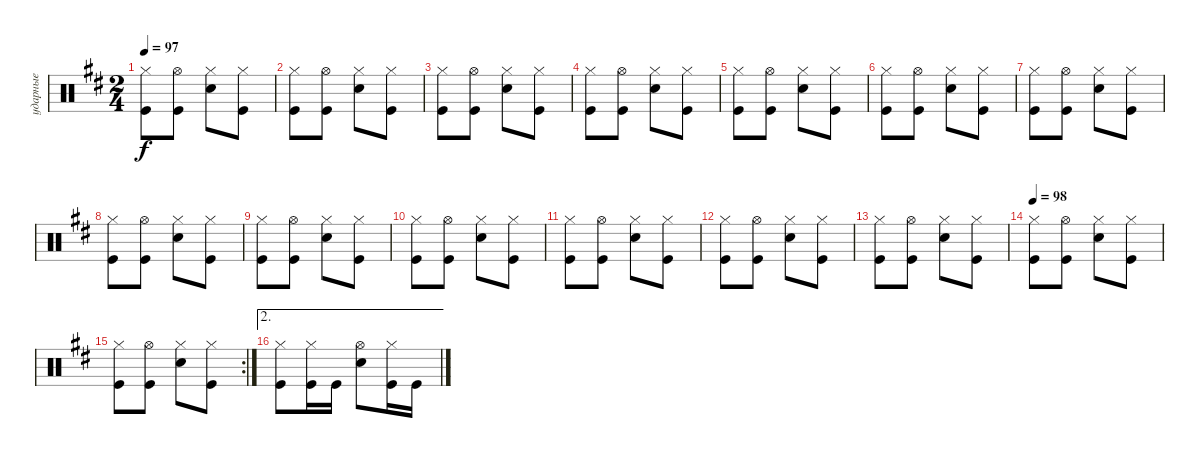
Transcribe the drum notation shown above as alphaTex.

\track ("ударные" "ударные") {instrument percussion}
\staff {score}
\articulation defaults
\ts (2 4)
\tempo 97
\clef neutral
\ks bminor
("Kick (hit)" "Hi-Hat (closed)").8{dy f} ("Kick (hit)" "Hi-Hat (open)").8 ("Snare (hit) 2" "Hi-Hat (closed)").8 ("Hi-Hat (closed)" "Kick (hit)").8 |
("Kick (hit)" "Hi-Hat (closed)").8 ("Kick (hit)" "Hi-Hat (open)").8 ("Snare (hit) 2" "Hi-Hat (closed)").8 ("Hi-Hat (closed)" "Kick (hit)").8 |
("Kick (hit)" "Hi-Hat (closed)").8 ("Kick (hit)" "Hi-Hat (open)").8 ("Snare (hit) 2" "Hi-Hat (closed)").8 ("Hi-Hat (closed)" "Kick (hit)").8 |
("Kick (hit)" "Hi-Hat (closed)").8 ("Kick (hit)" "Hi-Hat (open)").8 ("Snare (hit) 2" "Hi-Hat (closed)").8 ("Hi-Hat (closed)" "Kick (hit)").8 |
("Kick (hit)" "Hi-Hat (closed)").8 ("Kick (hit)" "Hi-Hat (open)").8 ("Snare (hit) 2" "Hi-Hat (closed)").8 ("Hi-Hat (closed)" "Kick (hit)").8 |
("Kick (hit)" "Hi-Hat (closed)").8 ("Kick (hit)" "Hi-Hat (open)").8 ("Snare (hit) 2" "Hi-Hat (closed)").8 ("Hi-Hat (closed)" "Kick (hit)").8 |
("Kick (hit)" "Hi-Hat (closed)").8 ("Kick (hit)" "Hi-Hat (open)").8 ("Snare (hit) 2" "Hi-Hat (closed)").8 ("Hi-Hat (closed)" "Kick (hit)").8 |
("Kick (hit)" "Hi-Hat (closed)").8 ("Kick (hit)" "Hi-Hat (open)").8 ("Snare (hit) 2" "Hi-Hat (closed)").8 ("Hi-Hat (closed)" "Kick (hit)").8 |
("Kick (hit)" "Hi-Hat (closed)").8 ("Kick (hit)" "Hi-Hat (open)").8 ("Snare (hit) 2" "Hi-Hat (closed)").8 ("Hi-Hat (closed)" "Kick (hit)").8 |
("Kick (hit)" "Hi-Hat (closed)").8 ("Kick (hit)" "Hi-Hat (open)").8 ("Snare (hit) 2" "Hi-Hat (closed)").8 ("Hi-Hat (closed)" "Kick (hit)").8 |
("Kick (hit)" "Hi-Hat (closed)").8 ("Kick (hit)" "Hi-Hat (open)").8 ("Snare (hit) 2" "Hi-Hat (closed)").8 ("Hi-Hat (closed)" "Kick (hit)").8 |
("Kick (hit)" "Hi-Hat (closed)").8 ("Kick (hit)" "Hi-Hat (open)").8 ("Snare (hit) 2" "Hi-Hat (closed)").8 ("Hi-Hat (closed)" "Kick (hit)").8 |
("Kick (hit)" "Hi-Hat (closed)").8 ("Kick (hit)" "Hi-Hat (open)").8 ("Snare (hit) 2" "Hi-Hat (closed)").8 ("Hi-Hat (closed)" "Kick (hit)").8 |
\tempo 98
("Kick (hit)" "Hi-Hat (closed)").8 ("Kick (hit)" "Hi-Hat (open)").8 ("Snare (hit) 2" "Hi-Hat (closed)").8 ("Hi-Hat (closed)" "Kick (hit)").8 |
\rc 2
("Kick (hit)" "Hi-Hat (closed)").8 ("Kick (hit)" "Hi-Hat (open)").8 ("Snare (hit) 2" "Hi-Hat (closed)").8 ("Hi-Hat (closed)" "Kick (hit)").8 |
\ae 2
("Kick (hit)" "Hi-Hat (closed)").8 ("Kick (hit)" "Hi-Hat (closed)").16 "Kick (hit)".16 ("Snare (hit) 2" "Hi-Hat (open)").8 ("Kick (hit)" "Hi-Hat (closed)").16 "Kick (hit)".16
